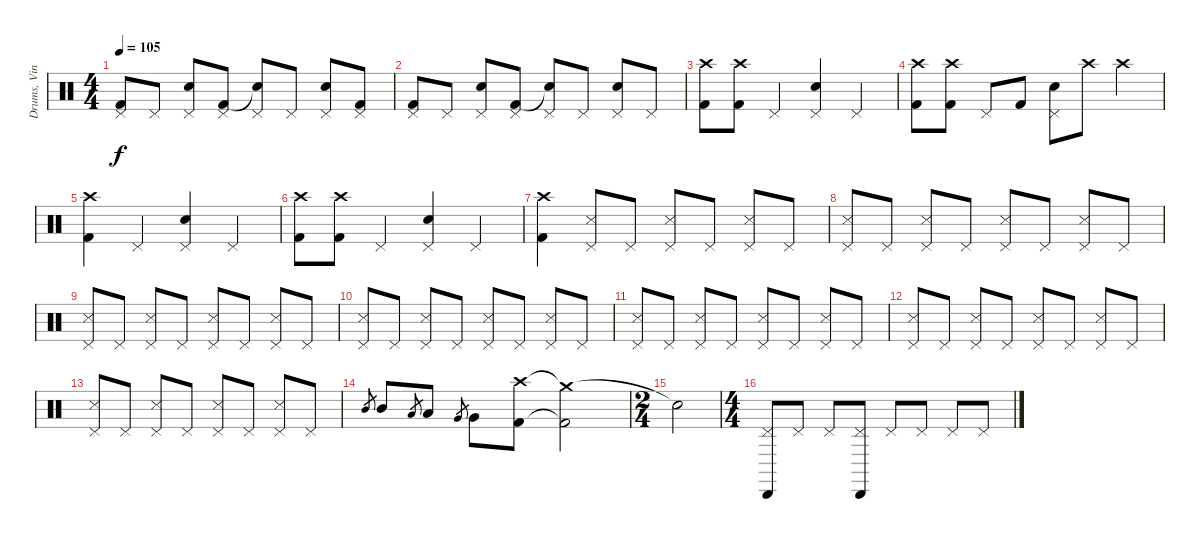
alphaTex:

\track ("Drums, Vinnie" "Drums, Vin") {instrument percussion}
\staff {score}
\articulation defaults
\ts (4 4)
\tempo 105
\clef neutral
\ks c
("Pedal Hi-Hat (hit)" "Kick (hit) 2").8{dy f} "Pedal Hi-Hat (hit)".8 ("Pedal Hi-Hat (hit)" "Electric Snare (hit)").8 ("Pedal Hi-Hat (hit)" "Kick (hit) 2").8 ("Pedal Hi-Hat (hit)" "Snare (hit)"{t}).8 "Pedal Hi-Hat (hit)".8 ("Pedal Hi-Hat (hit)" "Electric Snare (hit)").8 ("Pedal Hi-Hat (hit)" "Kick (hit) 2").8 |
("Pedal Hi-Hat (hit)" "Kick (hit) 2").8 "Pedal Hi-Hat (hit)".8 ("Pedal Hi-Hat (hit)" "Electric Snare (hit)").8 ("Pedal Hi-Hat (hit)" "Kick (hit) 2").8 ("Pedal Hi-Hat (hit)" "Snare (hit)"{t}).8 "Pedal Hi-Hat (hit)".8 ("Pedal Hi-Hat (hit)" "Electric Snare (hit)").8 "Pedal Hi-Hat (hit)".8 |
("Crash high (hit)" "Kick (hit) 2").8 ("Crash high (hit)" "Kick (hit) 2").8 "Pedal Hi-Hat (hit)".4 ("Pedal Hi-Hat (hit)" "Electric Snare (hit)").4 "Pedal Hi-Hat (hit)".4 |
("Crash high (hit)" "Kick (hit) 2").8 ("Crash high (hit)" "Kick (hit) 2").8 "Pedal Hi-Hat (hit)".8 "Kick (hit) 2".8 ("Pedal Hi-Hat (hit)" "Electric Snare (hit)").8 "Crash high (hit)".8 "Crash high (hit)".4 |
("Crash high (hit)" "Kick (hit) 2").4 "Pedal Hi-Hat (hit)".4 ("Pedal Hi-Hat (hit)" "Electric Snare (hit)").4 "Pedal Hi-Hat (hit)".4 |
("Crash high (hit)" "Kick (hit) 2").8 ("Crash high (hit)" "Kick (hit) 2").8 "Pedal Hi-Hat (hit)".4 ("Pedal Hi-Hat (hit)" "Electric Snare (hit)").4 "Pedal Hi-Hat (hit)".4 |
("Crash high (hit)" "Kick (hit) 2").4 ("Pedal Hi-Hat (hit)" "Snare (side stick) 3").8 "Pedal Hi-Hat (hit)".8 ("Pedal Hi-Hat (hit)" "Snare (side stick) 3").8 "Pedal Hi-Hat (hit)".8 ("Pedal Hi-Hat (hit)" "Snare (side stick) 3").8 "Pedal Hi-Hat (hit)".8 |
("Pedal Hi-Hat (hit)" "Snare (side stick) 3").8 "Pedal Hi-Hat (hit)".8 ("Pedal Hi-Hat (hit)" "Snare (side stick) 3").8 "Pedal Hi-Hat (hit)".8 ("Pedal Hi-Hat (hit)" "Snare (side stick) 3").8 "Pedal Hi-Hat (hit)".8 ("Pedal Hi-Hat (hit)" "Snare (side stick) 3").8 "Pedal Hi-Hat (hit)".8 |
("Pedal Hi-Hat (hit)" "Snare (side stick) 3").8 "Pedal Hi-Hat (hit)".8 ("Pedal Hi-Hat (hit)" "Snare (side stick) 3").8 "Pedal Hi-Hat (hit)".8 ("Pedal Hi-Hat (hit)" "Snare (side stick) 3").8 "Pedal Hi-Hat (hit)".8 ("Pedal Hi-Hat (hit)" "Snare (side stick) 3").8 "Pedal Hi-Hat (hit)".8 |
("Pedal Hi-Hat (hit)" "Snare (side stick) 3").8 "Pedal Hi-Hat (hit)".8 ("Pedal Hi-Hat (hit)" "Snare (side stick) 3").8 "Pedal Hi-Hat (hit)".8 ("Pedal Hi-Hat (hit)" "Snare (side stick) 3").8 "Pedal Hi-Hat (hit)".8 ("Pedal Hi-Hat (hit)" "Snare (side stick) 3").8 "Pedal Hi-Hat (hit)".8 |
("Pedal Hi-Hat (hit)" "Snare (side stick) 3").8 "Pedal Hi-Hat (hit)".8 ("Pedal Hi-Hat (hit)" "Snare (side stick) 3").8 "Pedal Hi-Hat (hit)".8 ("Pedal Hi-Hat (hit)" "Snare (side stick) 3").8 "Pedal Hi-Hat (hit)".8 ("Pedal Hi-Hat (hit)" "Snare (side stick) 3").8 "Pedal Hi-Hat (hit)".8 |
("Pedal Hi-Hat (hit)" "Snare (side stick) 3").8 "Pedal Hi-Hat (hit)".8 ("Pedal Hi-Hat (hit)" "Snare (side stick) 3").8 "Pedal Hi-Hat (hit)".8 ("Pedal Hi-Hat (hit)" "Snare (side stick) 3").8 "Pedal Hi-Hat (hit)".8 ("Pedal Hi-Hat (hit)" "Snare (side stick) 3").8 "Pedal Hi-Hat (hit)".8 |
("Pedal Hi-Hat (hit)" "Snare (side stick) 3").8 "Pedal Hi-Hat (hit)".8 ("Pedal Hi-Hat (hit)" "Snare (side stick) 3").8 "Pedal Hi-Hat (hit)".8 ("Pedal Hi-Hat (hit)" "Snare (side stick) 3").8 "Pedal Hi-Hat (hit)".8 ("Pedal Hi-Hat (hit)" "Snare (side stick) 3").8 "Pedal Hi-Hat (hit)".8 |
"Mid Tom (hit)".8{gr} "Mid Tom (hit)".8 "Low Tom (hit)".8{gr} "Low Tom (hit)".8 "Very Low Tom (hit)".8{gr} "Very Low Tom (hit)".8 ("Crash high (hit)" "Kick (hit) 2").8 ("Crash medium (hit)"{t} "Kick (hit) 2"{t}).2 |
\ts (2 4)
"Snare (hit)"{t}.2 |
\ts (4 4)
("Pedal Hi-Hat (hit)" "Cabasa (hit)").8 "Pedal Hi-Hat (hit)".8 "Pedal Hi-Hat (hit)".8 ("Pedal Hi-Hat (hit)" "Cabasa (hit)").8 "Pedal Hi-Hat (hit)".8 "Pedal Hi-Hat (hit)".8 "Pedal Hi-Hat (hit)".8 "Pedal Hi-Hat (hit)".8
